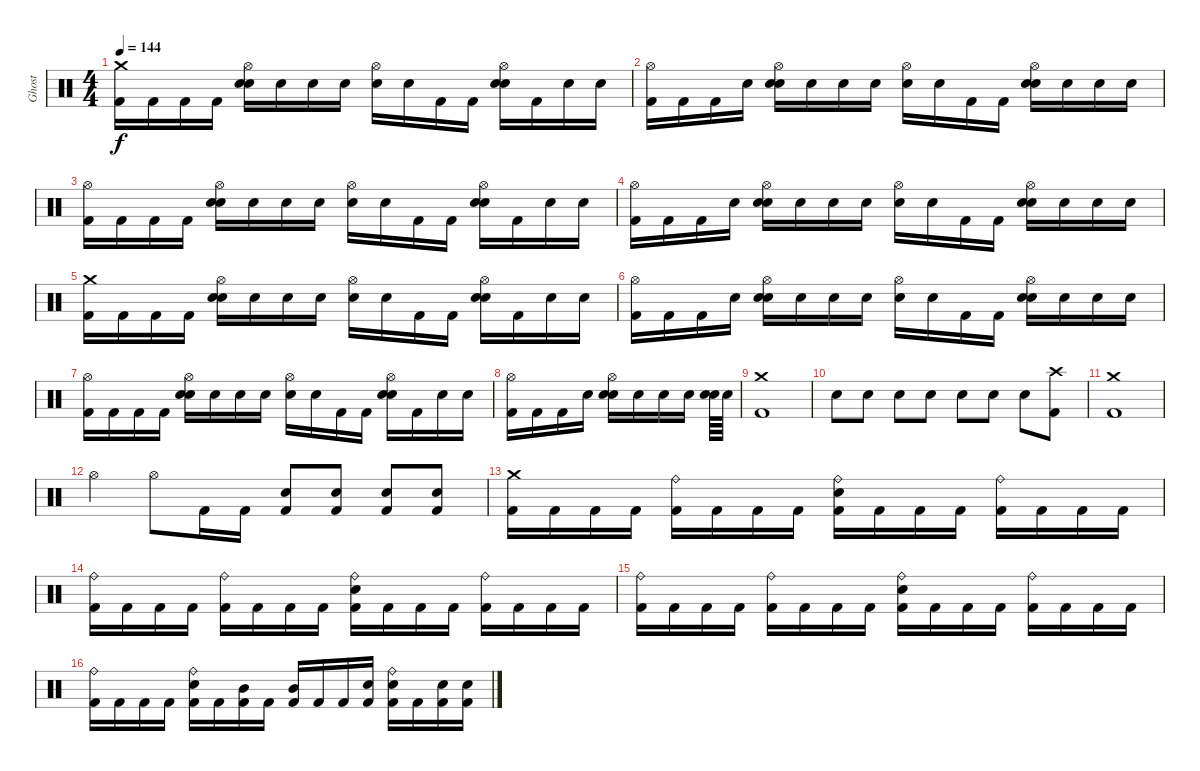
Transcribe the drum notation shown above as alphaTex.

\track ("Ghost" "Ghost") {instrument percussion}
\staff {score}
\articulation defaults
\ts (4 4)
\tempo 144
\clef neutral
\ks c
("Crash medium (hit)" "Kick (hit) 2").16{dy f} "Kick (hit) 2".16 "Kick (hit) 2".16 "Kick (hit) 2".16 ("Hi-Hat (open)" "Electric Snare (hit)" "Snare (hit)").16 "Snare (hit)".16 "Snare (hit)".16 "Electric Snare (hit)".16 ("Hi-Hat (open)" "Snare (hit)").16 "Snare (hit)".16 "Kick (hit) 2".16 "Kick (hit) 2".16 ("Hi-Hat (open)" "Electric Snare (hit)" "Snare (hit)").16 "Kick (hit) 2".16 "Snare (hit)".16 "Snare (hit)".16 |
("Hi-Hat (open)" "Kick (hit) 2").16 "Kick (hit) 2".16 "Kick (hit) 2".16 "Snare (hit)".16 ("Hi-Hat (open)" "Electric Snare (hit)" "Snare (hit)").16 "Snare (hit)".16 "Snare (hit)".16 "Electric Snare (hit)".16 ("Hi-Hat (open)" "Snare (hit)").16 "Snare (hit)".16 "Kick (hit) 2".16 "Kick (hit) 2".16 ("Hi-Hat (open)" "Electric Snare (hit)" "Snare (hit)").16 "Snare (hit)".16 "Snare (hit)".16 "Snare (hit)".16 |
("Hi-Hat (open)" "Kick (hit) 2").16 "Kick (hit) 2".16 "Kick (hit) 2".16 "Kick (hit) 2".16 ("Hi-Hat (open)" "Electric Snare (hit)" "Snare (hit)").16 "Snare (hit)".16 "Snare (hit)".16 "Electric Snare (hit)".16 ("Hi-Hat (open)" "Snare (hit)").16 "Snare (hit)".16 "Kick (hit) 2".16 "Kick (hit) 2".16 ("Hi-Hat (open)" "Electric Snare (hit)" "Snare (hit)").16 "Kick (hit) 2".16 "Snare (hit)".16 "Snare (hit)".16 |
("Hi-Hat (open)" "Kick (hit) 2").16 "Kick (hit) 2".16 "Kick (hit) 2".16 "Snare (hit)".16 ("Hi-Hat (open)" "Electric Snare (hit)" "Snare (hit)").16 "Snare (hit)".16 "Snare (hit)".16 "Electric Snare (hit)".16 ("Hi-Hat (open)" "Snare (hit)").16 "Snare (hit)".16 "Kick (hit) 2".16 "Kick (hit) 2".16 ("Hi-Hat (open)" "Electric Snare (hit)" "Snare (hit)").16 "Snare (hit)".16 "Snare (hit)".16 "Snare (hit)".16 |
("Crash medium (hit)" "Kick (hit) 2").16 "Kick (hit) 2".16 "Kick (hit) 2".16 "Kick (hit) 2".16 ("Hi-Hat (open)" "Electric Snare (hit)" "Snare (hit)").16 "Snare (hit)".16 "Snare (hit)".16 "Electric Snare (hit)".16 ("Hi-Hat (open)" "Snare (hit)").16 "Snare (hit)".16 "Kick (hit) 2".16 "Kick (hit) 2".16 ("Hi-Hat (open)" "Electric Snare (hit)" "Snare (hit)").16 "Kick (hit) 2".16 "Snare (hit)".16 "Snare (hit)".16 |
("Hi-Hat (open)" "Kick (hit) 2").16 "Kick (hit) 2".16 "Kick (hit) 2".16 "Snare (hit)".16 ("Hi-Hat (open)" "Electric Snare (hit)" "Snare (hit)").16 "Snare (hit)".16 "Snare (hit)".16 "Electric Snare (hit)".16 ("Hi-Hat (open)" "Snare (hit)").16 "Snare (hit)".16 "Kick (hit) 2".16 "Kick (hit) 2".16 ("Hi-Hat (open)" "Electric Snare (hit)" "Snare (hit)").16 "Snare (hit)".16 "Snare (hit)".16 "Snare (hit)".16 |
("Hi-Hat (open)" "Kick (hit) 2").16 "Kick (hit) 2".16 "Kick (hit) 2".16 "Kick (hit) 2".16 ("Hi-Hat (open)" "Electric Snare (hit)" "Snare (hit)").16 "Snare (hit)".16 "Snare (hit)".16 "Electric Snare (hit)".16 ("Hi-Hat (open)" "Snare (hit)").16 "Snare (hit)".16 "Kick (hit) 2".16 "Kick (hit) 2".16 ("Hi-Hat (open)" "Electric Snare (hit)" "Snare (hit)").16 "Kick (hit) 2".16 "Snare (hit)".16 "Snare (hit)".16 |
("Hi-Hat (open)" "Kick (hit) 2").16 "Kick (hit) 2".16 "Kick (hit) 2".16 "Snare (hit)".16 ("Hi-Hat (open)" "Electric Snare (hit)" "Snare (hit)").16 "Snare (hit)".16 "Snare (hit)".16 "Snare (hit)".16 ("Electric Snare (hit)" "Snare (hit)").64 "Electric Snare (hit)".64 |
("Crash medium (hit)" "Kick (hit) 2").1 |
"Snare (hit)".8 "Snare (hit)".8 "Snare (hit)".8 "Snare (hit)".8 "Snare (hit)".8 "Snare (hit)".8 "Snare (hit)".8 ("Crash high (hit)" "Kick (hit) 2").8 |
("Crash medium (hit)" "Kick (hit) 2").1 |
"Hi-Hat (open)".4 "Hi-Hat (open)".8 "Kick (hit) 2".16 "Kick (hit) 2".16 ("Electric Snare (hit)" "Kick (hit) 2").8 ("Electric Snare (hit)" "Kick (hit) 2").8 ("Electric Snare (hit)" "Kick (hit) 2").8 ("Electric Snare (hit)" "Kick (hit) 2").8 |
("Crash medium (hit)" "Kick (hit) 2").16 "Kick (hit) 2".16 "Kick (hit) 2".16 "Kick (hit) 2".16 ("Ride (bell)" "Kick (hit) 2").16 "Kick (hit) 2".16 "Kick (hit) 2".16 "Kick (hit) 2".16 ("Electric Snare (hit)" "Ride (bell)" "Kick (hit) 2").16 "Kick (hit) 2".16 "Kick (hit) 2".16 "Kick (hit) 2".16 ("Ride (bell)" "Kick (hit) 2").16 "Kick (hit) 2".16 "Kick (hit) 2".16 "Kick (hit) 2".16 |
("Ride (bell)" "Kick (hit) 2").16 "Kick (hit) 2".16 "Kick (hit) 2".16 "Kick (hit) 2".16 ("Ride (bell)" "Kick (hit) 2").16 "Kick (hit) 2".16 "Kick (hit) 2".16 "Kick (hit) 2".16 ("Electric Snare (hit)" "Ride (bell)" "Kick (hit) 2").16 "Kick (hit) 2".16 "Kick (hit) 2".16 "Kick (hit) 2".16 ("Ride (bell)" "Kick (hit) 2").16 "Kick (hit) 2".16 "Kick (hit) 2".16 "Kick (hit) 2".16 |
("Ride (bell)" "Kick (hit) 2").16 "Kick (hit) 2".16 "Kick (hit) 2".16 "Kick (hit) 2".16 ("Ride (bell)" "Kick (hit) 2").16 "Kick (hit) 2".16 "Kick (hit) 2".16 "Kick (hit) 2".16 ("Electric Snare (hit)" "Ride (bell)" "Kick (hit) 2").16 "Kick (hit) 2".16 "Kick (hit) 2".16 "Kick (hit) 2".16 ("Ride (bell)" "Kick (hit) 2").16 "Kick (hit) 2".16 "Kick (hit) 2".16 "Kick (hit) 2".16 |
("Ride (bell)" "Kick (hit) 2").16 "Kick (hit) 2".16 "Kick (hit) 2".16 "Kick (hit) 2".16 ("Electric Snare (hit)" "Ride (bell)" "Kick (hit) 2").16 "Kick (hit) 2".16 ("Mid Tom (hit)" "Kick (hit) 2").16 "Kick (hit) 2".16 ("Mid Tom (hit)" "Kick (hit) 2").16 "Kick (hit) 2".16 "Kick (hit) 2".16 ("Electric Snare (hit)" "Kick (hit) 2").16 ("Electric Snare (hit)" "Ride (bell)" "Kick (hit) 2").16 "Kick (hit) 2".16 ("Electric Snare (hit)" "Kick (hit) 2").16 ("Electric Snare (hit)" "Kick (hit) 2").16
